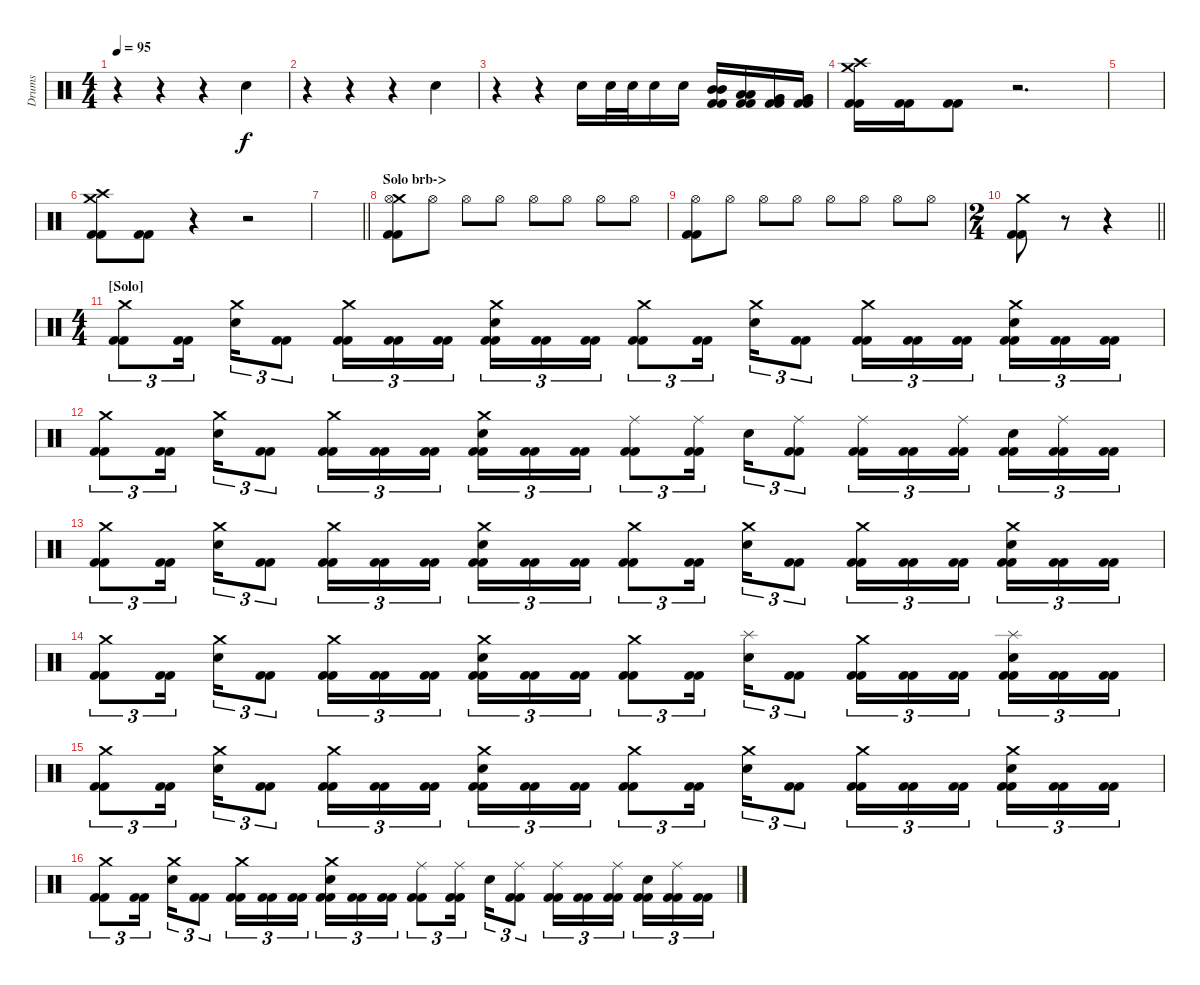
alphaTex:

\track ("Drums" "Drums") {instrument percussion}
\staff {score}
\articulation defaults
\ts (4 4)
\tempo 95
\clef neutral
\ks c
r.4{dy f} r.4 r.4 "Snare (hit) 2".4 |
r.4 r.4 r.4 "Snare (hit) 2".4 |
r.4 r.4 "Electric Snare (hit)".16 "Electric Snare (hit)".32 "Electric Snare (hit)".32 "Electric Snare (hit)".16 "Electric Snare (hit)".16 ("Mid Tom (hit)" "Mid Tom (hit)" "Kick (hit) 2" "Kick (hit) 2").16 ("Low Tom (hit)" "Low Tom (hit)" "Kick (hit) 2" "Kick (hit) 2").16 ("Very Low Tom (hit)" "Very Low Tom (hit)" "Kick (hit) 2" "Kick (hit) 2").16 ("Very Low Tom (hit)" "Very Low Tom (hit)" "Kick (hit) 2" "Kick (hit) 2").16 |
("Crash medium (hit)" "Crash high (hit)" "Kick (hit) 2" "Kick (hit) 2").16 ("Kick (hit) 2" "Kick (hit) 2").16 ("Kick (hit) 2" "Kick (hit) 2").8 r.2{d} |
|
("Crash medium (hit)" "Crash high (hit)" "Kick (hit) 2" "Kick (hit) 2").8 ("Kick (hit) 2" "Kick (hit) 2").8 r.4 r.2 |
\barLineRight lightlight
|
\section ("" "Solo brb->")
("Crash medium (hit)" "Hi-Hat (open)" "Kick (hit) 2" "Kick (hit) 2").8 "Hi-Hat (open)".8 "Hi-Hat (open)".8 "Hi-Hat (open)".8 "Hi-Hat (open)".8 "Hi-Hat (open)".8 "Hi-Hat (open)".8 "Hi-Hat (open)".8 |
("Hi-Hat (open)" "Kick (hit) 2" "Kick (hit) 2").8 "Hi-Hat (open)".8 "Hi-Hat (open)".8 "Hi-Hat (open)".8 "Hi-Hat (open)".8 "Hi-Hat (open)".8 "Hi-Hat (open)".8 "Hi-Hat (open)".8 |
\ts (2 4)
\barLineRight lightlight
("Crash medium (hit)" "Kick (hit) 2" "Kick (hit) 2").8 r.8 r.4 |
\ts (4 4)
\section ("" "[Solo]")
("Crash medium (hit)" "Kick (hit) 2" "Kick (hit) 2").8{tu (3 2)} ("Kick (hit) 2" "Kick (hit) 2").16{tu (3 2) beam splitsecondary} ("Crash medium (hit)" "Electric Snare (hit)").16{tu (3 2)} ("Kick (hit) 2" "Kick (hit) 2").8{tu (3 2)} ("Crash medium (hit)" "Kick (hit) 2" "Kick (hit) 2").16{tu (3 2)} ("Kick (hit) 2" "Kick (hit) 2").16{tu (3 2)} ("Kick (hit) 2" "Kick (hit) 2").16{tu (3 2) beam splitsecondary} ("Crash medium (hit)" "Electric Snare (hit)" "Kick (hit) 2" "Kick (hit) 2").16{tu (3 2)} ("Kick (hit) 2" "Kick (hit) 2").16{tu (3 2)} ("Kick (hit) 2" "Kick (hit) 2").16{tu (3 2)} ("Crash medium (hit)" "Kick (hit) 2" "Kick (hit) 2").8{tu (3 2)} ("Kick (hit) 2" "Kick (hit) 2").16{tu (3 2) beam splitsecondary} ("Crash medium (hit)" "Electric Snare (hit)").16{tu (3 2)} ("Kick (hit) 2" "Kick (hit) 2").8{tu (3 2)} ("Crash medium (hit)" "Kick (hit) 2" "Kick (hit) 2").16{tu (3 2)} ("Kick (hit) 2" "Kick (hit) 2").16{tu (3 2)} ("Kick (hit) 2" "Kick (hit) 2").16{tu (3 2) beam splitsecondary} ("Crash medium (hit)" "Electric Snare (hit)" "Kick (hit) 2" "Kick (hit) 2").16{tu (3 2)} ("Kick (hit) 2" "Kick (hit) 2").16{tu (3 2)} ("Kick (hit) 2" "Kick (hit) 2").16{tu (3 2)} |
("Crash medium (hit)" "Kick (hit) 2" "Kick (hit) 2").8{tu (3 2)} ("Kick (hit) 2" "Kick (hit) 2").16{tu (3 2) beam splitsecondary} ("Crash medium (hit)" "Electric Snare (hit)").16{tu (3 2)} ("Kick (hit) 2" "Kick (hit) 2").8{tu (3 2)} ("Crash medium (hit)" "Kick (hit) 2" "Kick (hit) 2").16{tu (3 2)} ("Kick (hit) 2" "Kick (hit) 2").16{tu (3 2)} ("Kick (hit) 2" "Kick (hit) 2").16{tu (3 2) beam splitsecondary} ("Crash medium (hit)" "Electric Snare (hit)" "Kick (hit) 2" "Kick (hit) 2").16{tu (3 2)} ("Kick (hit) 2" "Kick (hit) 2").16{tu (3 2)} ("Kick (hit) 2" "Kick (hit) 2").16{tu (3 2)} ("Ride (middle)" "Kick (hit) 2" "Kick (hit) 2").8{tu (3 2)} ("Ride (middle)" "Kick (hit) 2" "Kick (hit) 2").16{tu (3 2) beam splitsecondary} "Electric Snare (hit)".16{tu (3 2)} ("Ride (middle)" "Kick (hit) 2" "Kick (hit) 2").8{tu (3 2)} ("Ride (middle)" "Kick (hit) 2" "Kick (hit) 2").16{tu (3 2)} ("Kick (hit) 2" "Kick (hit) 2").16{tu (3 2)} ("Ride (middle)" "Kick (hit) 2" "Kick (hit) 2").16{tu (3 2) beam splitsecondary} ("Electric Snare (hit)" "Kick (hit) 2" "Kick (hit) 2").16{tu (3 2)} ("Ride (middle)" "Kick (hit) 2" "Kick (hit) 2").16{tu (3 2)} ("Kick (hit) 2" "Kick (hit) 2").16{tu (3 2)} |
("Crash medium (hit)" "Kick (hit) 2" "Kick (hit) 2").8{tu (3 2)} ("Kick (hit) 2" "Kick (hit) 2").16{tu (3 2) beam splitsecondary} ("Crash medium (hit)" "Electric Snare (hit)").16{tu (3 2)} ("Kick (hit) 2" "Kick (hit) 2").8{tu (3 2)} ("Crash medium (hit)" "Kick (hit) 2" "Kick (hit) 2").16{tu (3 2)} ("Kick (hit) 2" "Kick (hit) 2").16{tu (3 2)} ("Kick (hit) 2" "Kick (hit) 2").16{tu (3 2) beam splitsecondary} ("Crash medium (hit)" "Electric Snare (hit)" "Kick (hit) 2" "Kick (hit) 2").16{tu (3 2)} ("Kick (hit) 2" "Kick (hit) 2").16{tu (3 2)} ("Kick (hit) 2" "Kick (hit) 2").16{tu (3 2)} ("Crash medium (hit)" "Kick (hit) 2" "Kick (hit) 2").8{tu (3 2)} ("Kick (hit) 2" "Kick (hit) 2").16{tu (3 2) beam splitsecondary} ("Crash medium (hit)" "Electric Snare (hit)").16{tu (3 2)} ("Kick (hit) 2" "Kick (hit) 2").8{tu (3 2)} ("Crash medium (hit)" "Kick (hit) 2" "Kick (hit) 2").16{tu (3 2)} ("Kick (hit) 2" "Kick (hit) 2").16{tu (3 2)} ("Kick (hit) 2" "Kick (hit) 2").16{tu (3 2) beam splitsecondary} ("Crash medium (hit)" "Electric Snare (hit)" "Kick (hit) 2" "Kick (hit) 2").16{tu (3 2)} ("Kick (hit) 2" "Kick (hit) 2").16{tu (3 2)} ("Kick (hit) 2" "Kick (hit) 2").16{tu (3 2)} |
("Crash medium (hit)" "Kick (hit) 2" "Kick (hit) 2").8{tu (3 2)} ("Kick (hit) 2" "Kick (hit) 2").16{tu (3 2) beam splitsecondary} ("Crash medium (hit)" "Electric Snare (hit)").16{tu (3 2)} ("Kick (hit) 2" "Kick (hit) 2").8{tu (3 2)} ("Crash medium (hit)" "Kick (hit) 2" "Kick (hit) 2").16{tu (3 2)} ("Kick (hit) 2" "Kick (hit) 2").16{tu (3 2)} ("Kick (hit) 2" "Kick (hit) 2").16{tu (3 2) beam splitsecondary} ("Crash medium (hit)" "Electric Snare (hit)" "Kick (hit) 2" "Kick (hit) 2").16{tu (3 2)} ("Kick (hit) 2" "Kick (hit) 2").16{tu (3 2)} ("Kick (hit) 2" "Kick (hit) 2").16{tu (3 2)} ("Crash medium (hit)" "Kick (hit) 2" "Kick (hit) 2").8{tu (3 2)} ("Kick (hit) 2" "Kick (hit) 2").16{tu (3 2) beam splitsecondary} ("Splash (hit)" "Electric Snare (hit)").16{tu (3 2)} ("Kick (hit) 2" "Kick (hit) 2").8{tu (3 2)} ("Crash medium (hit)" "Kick (hit) 2" "Kick (hit) 2").16{tu (3 2)} ("Kick (hit) 2" "Kick (hit) 2").16{tu (3 2)} ("Kick (hit) 2" "Kick (hit) 2").16{tu (3 2) beam splitsecondary} ("Splash (hit)" "Electric Snare (hit)" "Kick (hit) 2" "Kick (hit) 2").16{tu (3 2)} ("Kick (hit) 2" "Kick (hit) 2").16{tu (3 2)} ("Kick (hit) 2" "Kick (hit) 2").16{tu (3 2)} |
("Crash medium (hit)" "Kick (hit) 2" "Kick (hit) 2").8{tu (3 2)} ("Kick (hit) 2" "Kick (hit) 2").16{tu (3 2) beam splitsecondary} ("Crash medium (hit)" "Electric Snare (hit)").16{tu (3 2)} ("Kick (hit) 2" "Kick (hit) 2").8{tu (3 2)} ("Crash medium (hit)" "Kick (hit) 2" "Kick (hit) 2").16{tu (3 2)} ("Kick (hit) 2" "Kick (hit) 2").16{tu (3 2)} ("Kick (hit) 2" "Kick (hit) 2").16{tu (3 2) beam splitsecondary} ("Crash medium (hit)" "Electric Snare (hit)" "Kick (hit) 2" "Kick (hit) 2").16{tu (3 2)} ("Kick (hit) 2" "Kick (hit) 2").16{tu (3 2)} ("Kick (hit) 2" "Kick (hit) 2").16{tu (3 2)} ("Crash medium (hit)" "Kick (hit) 2" "Kick (hit) 2").8{tu (3 2)} ("Kick (hit) 2" "Kick (hit) 2").16{tu (3 2) beam splitsecondary} ("Crash medium (hit)" "Electric Snare (hit)").16{tu (3 2)} ("Kick (hit) 2" "Kick (hit) 2").8{tu (3 2)} ("Crash medium (hit)" "Kick (hit) 2" "Kick (hit) 2").16{tu (3 2)} ("Kick (hit) 2" "Kick (hit) 2").16{tu (3 2)} ("Kick (hit) 2" "Kick (hit) 2").16{tu (3 2) beam splitsecondary} ("Crash medium (hit)" "Electric Snare (hit)" "Kick (hit) 2" "Kick (hit) 2").16{tu (3 2)} ("Kick (hit) 2" "Kick (hit) 2").16{tu (3 2)} ("Kick (hit) 2" "Kick (hit) 2").16{tu (3 2)} |
("Crash medium (hit)" "Kick (hit) 2" "Kick (hit) 2").8{tu (3 2)} ("Kick (hit) 2" "Kick (hit) 2").16{tu (3 2) beam splitsecondary} ("Crash medium (hit)" "Electric Snare (hit)").16{tu (3 2)} ("Kick (hit) 2" "Kick (hit) 2").8{tu (3 2)} ("Crash medium (hit)" "Kick (hit) 2" "Kick (hit) 2").16{tu (3 2)} ("Kick (hit) 2" "Kick (hit) 2").16{tu (3 2)} ("Kick (hit) 2" "Kick (hit) 2").16{tu (3 2) beam splitsecondary} ("Crash medium (hit)" "Electric Snare (hit)" "Kick (hit) 2" "Kick (hit) 2").16{tu (3 2)} ("Kick (hit) 2" "Kick (hit) 2").16{tu (3 2)} ("Kick (hit) 2" "Kick (hit) 2").16{tu (3 2)} ("Ride (middle)" "Kick (hit) 2" "Kick (hit) 2").8{tu (3 2)} ("Ride (middle)" "Kick (hit) 2" "Kick (hit) 2").16{tu (3 2) beam splitsecondary} "Electric Snare (hit)".16{tu (3 2)} ("Ride (middle)" "Kick (hit) 2" "Kick (hit) 2").8{tu (3 2)} ("Ride (middle)" "Kick (hit) 2" "Kick (hit) 2").16{tu (3 2)} ("Kick (hit) 2" "Kick (hit) 2").16{tu (3 2)} ("Ride (middle)" "Kick (hit) 2" "Kick (hit) 2").16{tu (3 2) beam splitsecondary} ("Electric Snare (hit)" "Kick (hit) 2" "Kick (hit) 2").16{tu (3 2)} ("Ride (middle)" "Kick (hit) 2" "Kick (hit) 2").16{tu (3 2)} ("Kick (hit) 2" "Kick (hit) 2").16{tu (3 2)}
